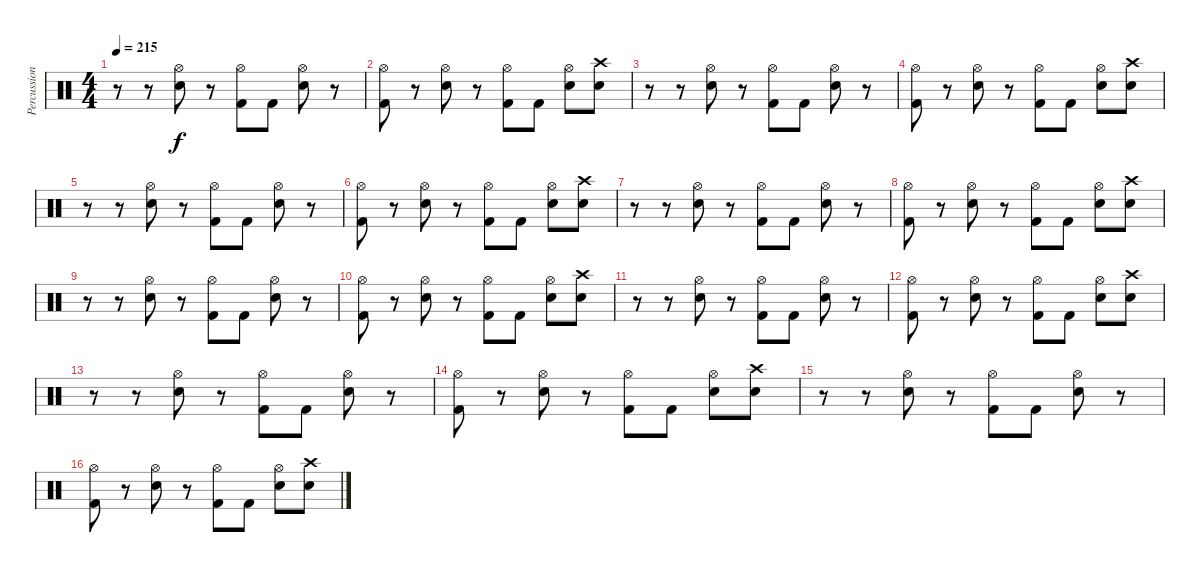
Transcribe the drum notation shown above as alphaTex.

\track ("Percussion" "Percussion") {instrument percussion}
\staff {score}
\articulation defaults
\ts (4 4)
\tempo 215
\clef neutral
\ks c
r.8{dy f} r.8 ("Hi-Hat (open)" "Snare (hit) 2").8 r.8 ("Hi-Hat (open)" "Kick (hit) 2").8 "Kick (hit) 2".8 ("Hi-Hat (open)" "Snare (hit) 2").8 r.8 |
("Hi-Hat (open)" "Kick (hit) 2").8 r.8 ("Hi-Hat (open)" "Snare (hit) 2").8 r.8 ("Hi-Hat (open)" "Kick (hit) 2").8 "Kick (hit) 2".8 ("Hi-Hat (open)" "Snare (hit) 2").8 ("Crash high (hit)" "Snare (hit) 2").8 |
r.8 r.8 ("Hi-Hat (open)" "Snare (hit) 2").8 r.8 ("Hi-Hat (open)" "Kick (hit) 2").8 "Kick (hit) 2".8 ("Hi-Hat (open)" "Snare (hit) 2").8 r.8 |
("Hi-Hat (open)" "Kick (hit) 2").8 r.8 ("Hi-Hat (open)" "Snare (hit) 2").8 r.8 ("Hi-Hat (open)" "Kick (hit) 2").8 "Kick (hit) 2".8 ("Hi-Hat (open)" "Snare (hit) 2").8 ("Crash high (hit)" "Snare (hit) 2").8 |
r.8 r.8 ("Hi-Hat (open)" "Snare (hit) 2").8 r.8 ("Hi-Hat (open)" "Kick (hit) 2").8 "Kick (hit) 2".8 ("Hi-Hat (open)" "Snare (hit) 2").8 r.8 |
("Hi-Hat (open)" "Kick (hit) 2").8 r.8 ("Hi-Hat (open)" "Snare (hit) 2").8 r.8 ("Hi-Hat (open)" "Kick (hit) 2").8 "Kick (hit) 2".8 ("Hi-Hat (open)" "Snare (hit) 2").8 ("Crash high (hit)" "Snare (hit) 2").8 |
r.8 r.8 ("Hi-Hat (open)" "Snare (hit) 2").8 r.8 ("Hi-Hat (open)" "Kick (hit) 2").8 "Kick (hit) 2".8 ("Hi-Hat (open)" "Snare (hit) 2").8 r.8 |
("Hi-Hat (open)" "Kick (hit) 2").8 r.8 ("Hi-Hat (open)" "Snare (hit) 2").8 r.8 ("Hi-Hat (open)" "Kick (hit) 2").8 "Kick (hit) 2".8 ("Hi-Hat (open)" "Snare (hit) 2").8 ("Crash high (hit)" "Snare (hit) 2").8 |
r.8 r.8 ("Hi-Hat (open)" "Snare (hit) 2").8 r.8 ("Hi-Hat (open)" "Kick (hit) 2").8 "Kick (hit) 2".8 ("Hi-Hat (open)" "Snare (hit) 2").8 r.8 |
("Hi-Hat (open)" "Kick (hit) 2").8 r.8 ("Hi-Hat (open)" "Snare (hit) 2").8 r.8 ("Hi-Hat (open)" "Kick (hit) 2").8 "Kick (hit) 2".8 ("Hi-Hat (open)" "Snare (hit) 2").8 ("Crash high (hit)" "Snare (hit) 2").8 |
r.8 r.8 ("Hi-Hat (open)" "Snare (hit) 2").8 r.8 ("Hi-Hat (open)" "Kick (hit) 2").8 "Kick (hit) 2".8 ("Hi-Hat (open)" "Snare (hit) 2").8 r.8 |
("Hi-Hat (open)" "Kick (hit) 2").8 r.8 ("Hi-Hat (open)" "Snare (hit) 2").8 r.8 ("Hi-Hat (open)" "Kick (hit) 2").8 "Kick (hit) 2".8 ("Hi-Hat (open)" "Snare (hit) 2").8 ("Crash high (hit)" "Snare (hit) 2").8 |
r.8 r.8 ("Hi-Hat (open)" "Snare (hit) 2").8 r.8 ("Hi-Hat (open)" "Kick (hit) 2").8 "Kick (hit) 2".8 ("Hi-Hat (open)" "Snare (hit) 2").8 r.8 |
("Hi-Hat (open)" "Kick (hit) 2").8 r.8 ("Hi-Hat (open)" "Snare (hit) 2").8 r.8 ("Hi-Hat (open)" "Kick (hit) 2").8 "Kick (hit) 2".8 ("Hi-Hat (open)" "Snare (hit) 2").8 ("Crash high (hit)" "Snare (hit) 2").8 |
r.8 r.8 ("Hi-Hat (open)" "Snare (hit) 2").8 r.8 ("Hi-Hat (open)" "Kick (hit) 2").8 "Kick (hit) 2".8 ("Hi-Hat (open)" "Snare (hit) 2").8 r.8 |
("Hi-Hat (open)" "Kick (hit) 2").8 r.8 ("Hi-Hat (open)" "Snare (hit) 2").8 r.8 ("Hi-Hat (open)" "Kick (hit) 2").8 "Kick (hit) 2".8 ("Hi-Hat (open)" "Snare (hit) 2").8 ("Crash high (hit)" "Snare (hit) 2").8
